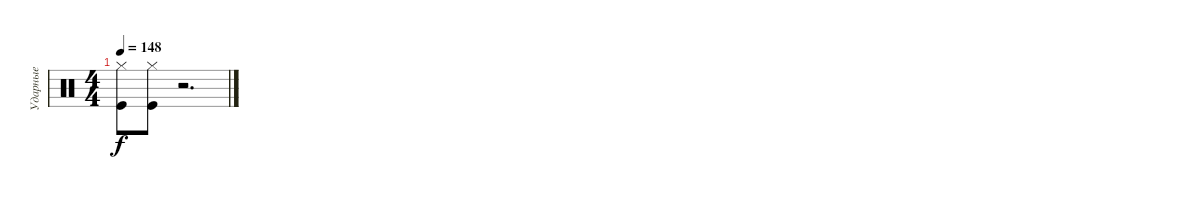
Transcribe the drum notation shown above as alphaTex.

\track ("Ударные" "Ударные") {instrument percussion}
\staff {score}
\articulation defaults
\ts (4 4)
\tempo 148
\clef neutral
\ks c
("Hi-Hat (closed)" "Kick (hit)").8{dy f} ("Hi-Hat (closed)" "Kick (hit)").8 r.2{d}
